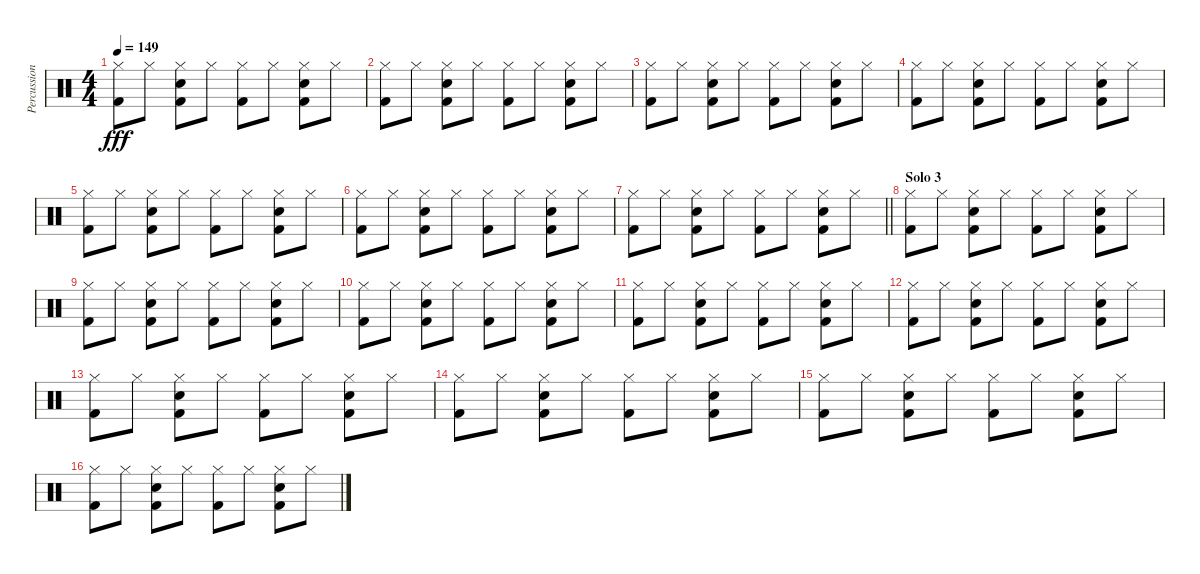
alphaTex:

\track ("Percussion" "Percussion") {instrument percussion}
\staff {score}
\articulation defaults
\ts (4 4)
\tempo 149
\clef neutral
\ks c
("Hi-Hat (closed)" "Kick (hit) 2").8{dy fff} "Hi-Hat (closed)".8 ("Hi-Hat (closed)" "Snare (hit) 2" "Kick (hit) 2").8 "Hi-Hat (closed)".8 ("Hi-Hat (closed)" "Kick (hit) 2").8 "Hi-Hat (closed)".8 ("Hi-Hat (closed)" "Snare (hit) 2" "Kick (hit) 2").8 "Hi-Hat (closed)".8 |
("Hi-Hat (closed)" "Kick (hit) 2").8 "Hi-Hat (closed)".8 ("Hi-Hat (closed)" "Snare (hit) 2" "Kick (hit) 2").8 "Hi-Hat (closed)".8 ("Hi-Hat (closed)" "Kick (hit) 2").8 "Hi-Hat (closed)".8 ("Hi-Hat (closed)" "Snare (hit) 2" "Kick (hit) 2").8 "Hi-Hat (closed)".8 |
("Hi-Hat (closed)" "Kick (hit) 2").8 "Hi-Hat (closed)".8 ("Hi-Hat (closed)" "Snare (hit) 2" "Kick (hit) 2").8 "Hi-Hat (closed)".8 ("Hi-Hat (closed)" "Kick (hit) 2").8 "Hi-Hat (closed)".8 ("Hi-Hat (closed)" "Snare (hit) 2" "Kick (hit) 2").8 "Hi-Hat (closed)".8 |
("Hi-Hat (closed)" "Kick (hit) 2").8 "Hi-Hat (closed)".8 ("Hi-Hat (closed)" "Snare (hit) 2" "Kick (hit) 2").8 "Hi-Hat (closed)".8 ("Hi-Hat (closed)" "Kick (hit) 2").8 "Hi-Hat (closed)".8 ("Hi-Hat (closed)" "Snare (hit) 2" "Kick (hit) 2").8 "Hi-Hat (closed)".8 |
("Hi-Hat (closed)" "Kick (hit) 2").8 "Hi-Hat (closed)".8 ("Hi-Hat (closed)" "Snare (hit) 2" "Kick (hit) 2").8 "Hi-Hat (closed)".8 ("Hi-Hat (closed)" "Kick (hit) 2").8 "Hi-Hat (closed)".8 ("Hi-Hat (closed)" "Snare (hit) 2" "Kick (hit) 2").8 "Hi-Hat (closed)".8 |
("Hi-Hat (closed)" "Kick (hit) 2").8 "Hi-Hat (closed)".8 ("Hi-Hat (closed)" "Snare (hit) 2" "Kick (hit) 2").8 "Hi-Hat (closed)".8 ("Hi-Hat (closed)" "Kick (hit) 2").8 "Hi-Hat (closed)".8 ("Hi-Hat (closed)" "Snare (hit) 2" "Kick (hit) 2").8 "Hi-Hat (closed)".8 |
\barLineRight lightlight
("Hi-Hat (closed)" "Kick (hit) 2").8 "Hi-Hat (closed)".8 ("Hi-Hat (closed)" "Snare (hit) 2" "Kick (hit) 2").8 "Hi-Hat (closed)".8 ("Hi-Hat (closed)" "Kick (hit) 2").8 "Hi-Hat (closed)".8 ("Hi-Hat (closed)" "Snare (hit) 2" "Kick (hit) 2").8 "Hi-Hat (closed)".8 |
\section ("" "Solo 3")
("Hi-Hat (closed)" "Kick (hit) 2").8 "Hi-Hat (closed)".8 ("Hi-Hat (closed)" "Snare (hit) 2" "Kick (hit) 2").8 "Hi-Hat (closed)".8 ("Hi-Hat (closed)" "Kick (hit) 2").8 "Hi-Hat (closed)".8 ("Hi-Hat (closed)" "Snare (hit) 2" "Kick (hit) 2").8 "Hi-Hat (closed)".8 |
("Hi-Hat (closed)" "Kick (hit) 2").8 "Hi-Hat (closed)".8 ("Hi-Hat (closed)" "Snare (hit) 2" "Kick (hit) 2").8 "Hi-Hat (closed)".8 ("Hi-Hat (closed)" "Kick (hit) 2").8 "Hi-Hat (closed)".8 ("Hi-Hat (closed)" "Snare (hit) 2" "Kick (hit) 2").8 "Hi-Hat (closed)".8 |
("Hi-Hat (closed)" "Kick (hit) 2").8 "Hi-Hat (closed)".8 ("Hi-Hat (closed)" "Snare (hit) 2" "Kick (hit) 2").8 "Hi-Hat (closed)".8 ("Hi-Hat (closed)" "Kick (hit) 2").8 "Hi-Hat (closed)".8 ("Hi-Hat (closed)" "Snare (hit) 2" "Kick (hit) 2").8 "Hi-Hat (closed)".8 |
("Hi-Hat (closed)" "Kick (hit) 2").8 "Hi-Hat (closed)".8 ("Hi-Hat (closed)" "Snare (hit) 2" "Kick (hit) 2").8 "Hi-Hat (closed)".8 ("Hi-Hat (closed)" "Kick (hit) 2").8 "Hi-Hat (closed)".8 ("Hi-Hat (closed)" "Snare (hit) 2" "Kick (hit) 2").8 "Hi-Hat (closed)".8 |
("Hi-Hat (closed)" "Kick (hit) 2").8 "Hi-Hat (closed)".8 ("Hi-Hat (closed)" "Snare (hit) 2" "Kick (hit) 2").8 "Hi-Hat (closed)".8 ("Hi-Hat (closed)" "Kick (hit) 2").8 "Hi-Hat (closed)".8 ("Hi-Hat (closed)" "Snare (hit) 2" "Kick (hit) 2").8 "Hi-Hat (closed)".8 |
("Hi-Hat (closed)" "Kick (hit) 2").8 "Hi-Hat (closed)".8 ("Hi-Hat (closed)" "Snare (hit) 2" "Kick (hit) 2").8 "Hi-Hat (closed)".8 ("Hi-Hat (closed)" "Kick (hit) 2").8 "Hi-Hat (closed)".8 ("Hi-Hat (closed)" "Snare (hit) 2" "Kick (hit) 2").8 "Hi-Hat (closed)".8 |
("Hi-Hat (closed)" "Kick (hit) 2").8 "Hi-Hat (closed)".8 ("Hi-Hat (closed)" "Snare (hit) 2" "Kick (hit) 2").8 "Hi-Hat (closed)".8 ("Hi-Hat (closed)" "Kick (hit) 2").8 "Hi-Hat (closed)".8 ("Hi-Hat (closed)" "Snare (hit) 2" "Kick (hit) 2").8 "Hi-Hat (closed)".8 |
("Hi-Hat (closed)" "Kick (hit) 2").8 "Hi-Hat (closed)".8 ("Hi-Hat (closed)" "Snare (hit) 2" "Kick (hit) 2").8 "Hi-Hat (closed)".8 ("Hi-Hat (closed)" "Kick (hit) 2").8 "Hi-Hat (closed)".8 ("Hi-Hat (closed)" "Snare (hit) 2" "Kick (hit) 2").8 "Hi-Hat (closed)".8 |
("Hi-Hat (closed)" "Kick (hit) 2").8 "Hi-Hat (closed)".8 ("Hi-Hat (closed)" "Snare (hit) 2" "Kick (hit) 2").8 "Hi-Hat (closed)".8 ("Hi-Hat (closed)" "Kick (hit) 2").8 "Hi-Hat (closed)".8 ("Hi-Hat (closed)" "Snare (hit) 2" "Kick (hit) 2").8 "Hi-Hat (closed)".8
